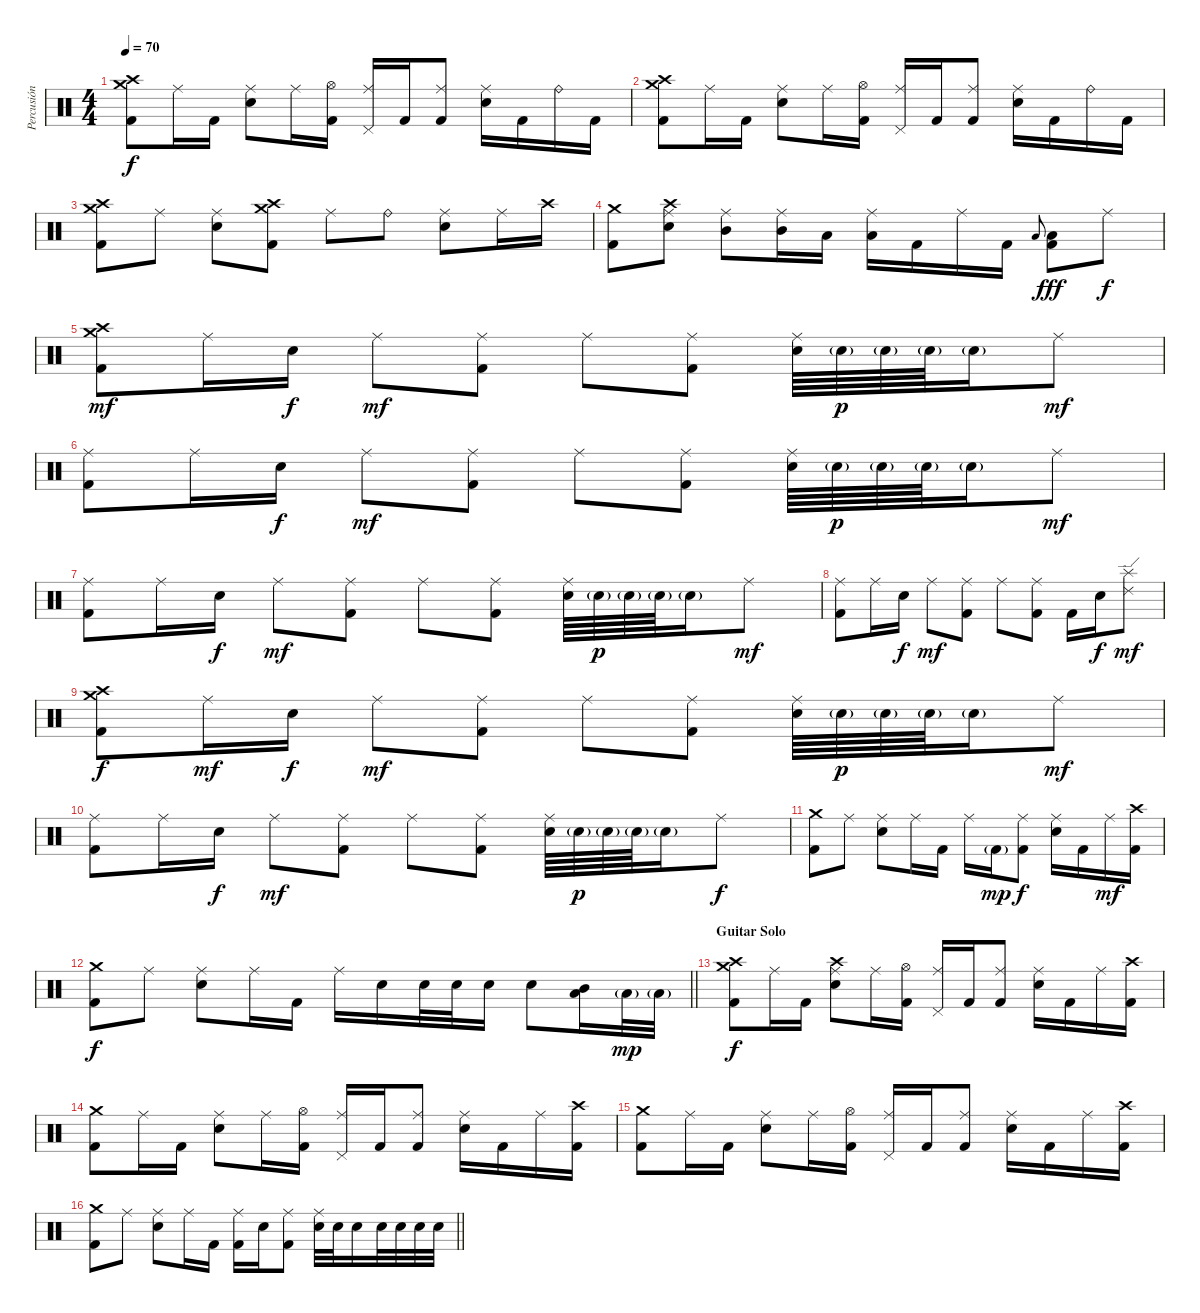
\track ("Percusión" "Percusión") {instrument percussion}
\staff {score}
\articulation defaults
\ts (4 4)
\tempo 70
\clef neutral
\ks c
("Crash medium (hit)" "Crash high (hit)" "Kick (hit) 2").8{dy f} "Ride (middle)".16 "Kick (hit) 2".16 ("Ride (middle)" "Electric Snare (hit)").8 "Ride (middle)".16 ("Hi-Hat (open)" "Kick (hit) 2").16 ("Ride (middle)" "Pedal Hi-Hat (hit)").16 "Kick (hit) 2".16 ("Ride (middle)" "Kick (hit) 2").8 ("Ride (middle)" "Electric Snare (hit)").16 "Kick (hit) 2".16 "Ride (bell)".16 "Kick (hit) 2".16 |
("Crash medium (hit)" "Crash high (hit)" "Kick (hit) 2").8 "Ride (middle)".16 "Kick (hit) 2".16 ("Ride (middle)" "Electric Snare (hit)").8 "Ride (middle)".16 ("Hi-Hat (open)" "Kick (hit) 2").16 ("Ride (middle)" "Pedal Hi-Hat (hit)").16 "Kick (hit) 2".16 ("Ride (middle)" "Kick (hit) 2").8 ("Ride (middle)" "Electric Snare (hit)").16 "Kick (hit) 2".16 "Ride (bell)".16 "Kick (hit) 2".16 |
("Crash medium (hit)" "Crash high (hit)" "Kick (hit) 2").8 "Ride (middle)".8 ("Ride (middle)" "Electric Snare (hit)").8 ("Crash medium (hit)" "Crash high (hit)" "Kick (hit) 2").8 "Ride (middle)".8 "Ride (bell)".8 ("Ride (middle)" "Electric Snare (hit)").8 "Ride (middle)".16 "Crash high (hit)".16 |
("Crash medium (hit)" "Kick (hit) 2").8 ("Crash high (hit)" "Ride (middle)" "Electric Snare (hit)").8 ("Ride (middle)" "Mid Tom (hit)").8 ("Ride (middle)" "Mid Tom (hit)").16 "Low Tom (hit)".16 ("Ride (middle)" "Low Tom (hit)").16 "Kick (hit) 2".16 "Ride (middle)".16 "Kick (hit) 2".16 "Low Floor Tom (hit)".8{gr onbeat} ("Low Floor Tom (hit)" "Kick (hit) 2").8{dy fff} "Ride (middle)".8{dy f} |
("Crash medium (hit)" "Crash high (hit)" "Kick (hit) 2").8{dy mf} "Ride (middle)".16 "Electric Snare (hit)".16{dy f} "Ride (middle)".8{dy mf} ("Ride (middle)" "Kick (hit) 2").8 "Ride (middle)".8 ("Ride (middle)" "Kick (hit) 2").8 ("Ride (middle)" "Electric Snare (hit)").64 "Electric Snare (hit)"{g}.64{dy p} "Electric Snare (hit)"{g}.64 "Electric Snare (hit)"{g}.64 "Electric Snare (hit)"{g}.16 "Ride (middle)".8{dy mf} |
("Ride (middle)" "Kick (hit) 2").8 "Ride (middle)".16 "Electric Snare (hit)".16{dy f} "Ride (middle)".8{dy mf} ("Ride (middle)" "Kick (hit) 2").8 "Ride (middle)".8 ("Ride (middle)" "Kick (hit) 2").8 ("Ride (middle)" "Electric Snare (hit)").64 "Electric Snare (hit)"{g}.64{dy p} "Electric Snare (hit)"{g}.64 "Electric Snare (hit)"{g}.64 "Electric Snare (hit)"{g}.16 "Ride (middle)".8{dy mf} |
("Ride (middle)" "Kick (hit) 2").8 "Ride (middle)".16 "Electric Snare (hit)".16{dy f} "Ride (middle)".8{dy mf} ("Ride (middle)" "Kick (hit) 2").8 "Ride (middle)".8 ("Ride (middle)" "Kick (hit) 2").8 ("Ride (middle)" "Electric Snare (hit)").64 "Electric Snare (hit)"{g}.64{dy p} "Electric Snare (hit)"{g}.64 "Electric Snare (hit)"{g}.64 "Electric Snare (hit)"{g}.16 "Ride (middle)".8{dy mf} |
("Ride (middle)" "Kick (hit) 2").8 "Ride (middle)".16 "Electric Snare (hit)".16{dy f} "Ride (middle)".8{dy mf} ("Ride (middle)" "Kick (hit) 2").8 "Ride (middle)".8 ("Ride (middle)" "Kick (hit) 2").8 "Kick (hit) 2".16 "Electric Snare (hit)".16{dy f} ("Splash (hit)" "Ride (edge) 2").8{dy mf} |
("Crash medium (hit)" "Crash high (hit)" "Kick (hit) 2").8{dy f} "Ride (middle)".16{dy mf} "Electric Snare (hit)".16{dy f} "Ride (middle)".8{dy mf} ("Ride (middle)" "Kick (hit) 2").8 "Ride (middle)".8 ("Ride (middle)" "Kick (hit) 2").8 ("Ride (middle)" "Electric Snare (hit)").64 "Electric Snare (hit)"{g}.64{dy p} "Electric Snare (hit)"{g}.64 "Electric Snare (hit)"{g}.64 "Electric Snare (hit)"{g}.16 "Ride (middle)".8{dy mf} |
("Ride (middle)" "Kick (hit) 2").8 "Ride (middle)".16 "Electric Snare (hit)".16{dy f} "Ride (middle)".8{dy mf} ("Ride (middle)" "Kick (hit) 2").8 "Ride (middle)".8 ("Ride (middle)" "Kick (hit) 2").8 ("Ride (middle)" "Electric Snare (hit)").64 "Electric Snare (hit)"{g}.64{dy p} "Electric Snare (hit)"{g}.64 "Electric Snare (hit)"{g}.64 "Electric Snare (hit)"{g}.16 "Ride (middle)".8{dy f} |
("Crash medium (hit)" "Kick (hit) 2").8 "Ride (middle)".8 ("Ride (middle)" "Electric Snare (hit)").8 "Ride (middle)".16 "Kick (hit) 2".16 "Ride (middle)".16 "Kick (hit) 2"{g}.16{dy mp} ("Ride (middle)" "Kick (hit) 2").8{dy f} ("Ride (middle)" "Electric Snare (hit)").16 "Kick (hit) 2".16 "Ride (middle)".16{dy mf} ("Crash high (hit)" "Kick (hit) 2").16 |
\barLineRight lightlight
("Crash medium (hit)" "Kick (hit) 2").8{dy f} "Ride (middle)".8 ("Ride (middle)" "Electric Snare (hit)").8 "Ride (middle)".16 "Kick (hit) 2".16 "Ride (middle)".16 "Electric Snare (hit)".16 "Electric Snare (hit)".32 "Electric Snare (hit)".32 "Electric Snare (hit)".16 "Electric Snare (hit)".8 ("Mid Tom (hit)" "Low Tom (hit)").16 "Low Floor Tom (hit)"{g}.32{dy mp} "Low Floor Tom (hit)"{g}.32 |
\section ("" "Guitar Solo")
("Crash medium (hit)" "Crash high (hit)" "Kick (hit) 2").8{dy f} "Ride (middle)".16 "Kick (hit) 2".16 ("Crash high (hit)" "Ride (middle)" "Electric Snare (hit)").8 "Ride (middle)".16 ("Hi-Hat (open)" "Kick (hit) 2").16 ("Ride (middle)" "Pedal Hi-Hat (hit)").16 "Kick (hit) 2".16 ("Ride (middle)" "Kick (hit) 2").8 ("Ride (middle)" "Electric Snare (hit)").16 "Kick (hit) 2".16 "Ride (middle)".16 ("Crash high (hit)" "Kick (hit) 2").16 |
("Crash medium (hit)" "Kick (hit) 2").8 "Ride (middle)".16 "Kick (hit) 2".16 ("Ride (middle)" "Electric Snare (hit)").8 "Ride (middle)".16 ("Hi-Hat (open)" "Kick (hit) 2").16 ("Ride (middle)" "Pedal Hi-Hat (hit)").16 "Kick (hit) 2".16 ("Ride (middle)" "Kick (hit) 2").8 ("Ride (middle)" "Electric Snare (hit)").16 "Kick (hit) 2".16 "Ride (middle)".16 ("Crash high (hit)" "Kick (hit) 2").16 |
("Crash medium (hit)" "Kick (hit) 2").8 "Ride (middle)".16 "Kick (hit) 2".16 ("Ride (middle)" "Electric Snare (hit)").8 "Ride (middle)".16 ("Hi-Hat (open)" "Kick (hit) 2").16 ("Ride (middle)" "Pedal Hi-Hat (hit)").16 "Kick (hit) 2".16 ("Ride (middle)" "Kick (hit) 2").8 ("Ride (middle)" "Electric Snare (hit)").16 "Kick (hit) 2".16 "Ride (middle)".16 ("Crash high (hit)" "Kick (hit) 2").16 |
\barLineRight lightlight
("Crash medium (hit)" "Kick (hit) 2").8 "Ride (middle)".8 ("Ride (middle)" "Electric Snare (hit)").8 "Ride (middle)".16 "Kick (hit) 2".16 ("Ride (middle)" "Kick (hit) 2").16 "Electric Snare (hit)".16 ("Ride (middle)" "Kick (hit) 2").8 ("Ride (middle)" "Electric Snare (hit)").32 "Electric Snare (hit)".32 "Electric Snare (hit)".16 "Electric Snare (hit)".32 "Electric Snare (hit)".32 "Electric Snare (hit)".32 "Electric Snare (hit)".32
